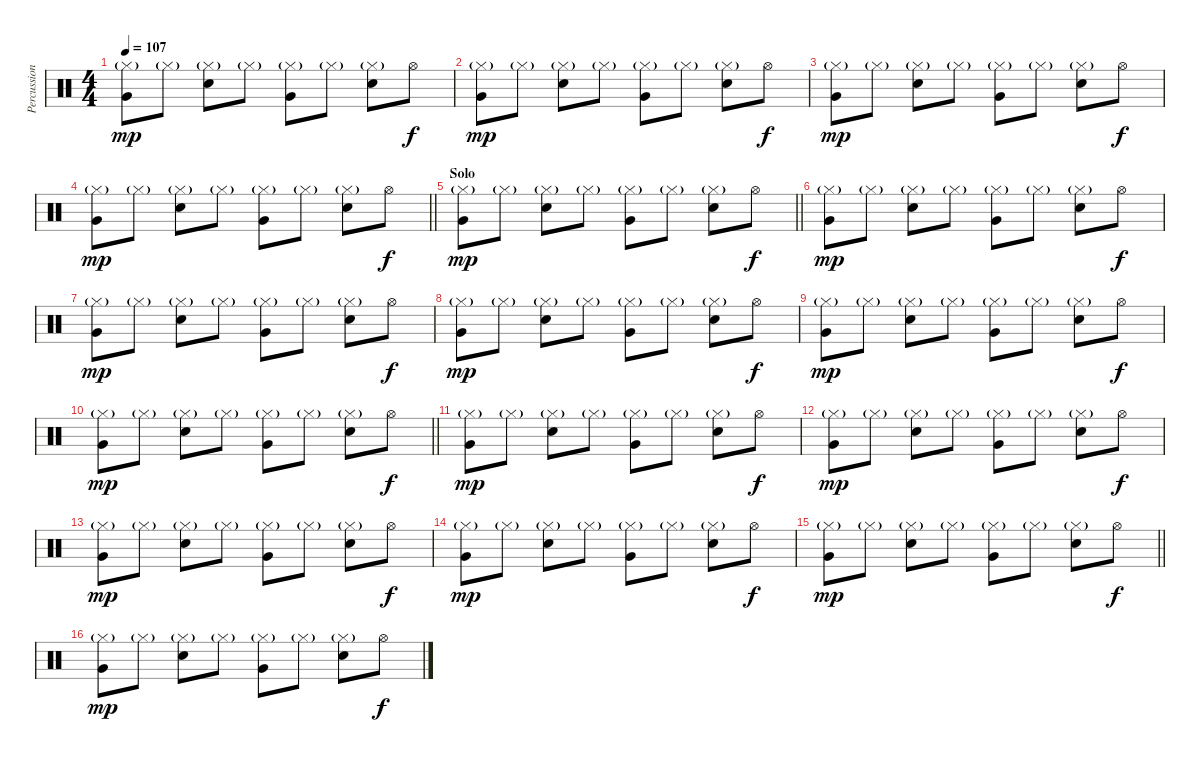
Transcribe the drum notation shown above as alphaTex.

\track ("Percussion" "Percussion") {instrument percussion}
\staff {score}
\articulation defaults
\ts (4 4)
\tempo 107
\clef neutral
\ks c
("Hi-Hat (closed)"{g} "Very Low Tom (hit)").8{dy mp} "Hi-Hat (closed)"{g}.8 ("Hi-Hat (closed)"{g} "Electric Snare (hit)").8 "Hi-Hat (closed)"{g}.8 ("Hi-Hat (closed)"{g} "Very Low Tom (hit)").8 "Hi-Hat (closed)"{g}.8 ("Hi-Hat (closed)"{g} "Electric Snare (hit)").8 "Hi-Hat (open)".8{dy f} |
("Hi-Hat (closed)"{g} "Very Low Tom (hit)").8{dy mp} "Hi-Hat (closed)"{g}.8 ("Hi-Hat (closed)"{g} "Electric Snare (hit)").8 "Hi-Hat (closed)"{g}.8 ("Hi-Hat (closed)"{g} "Very Low Tom (hit)").8 "Hi-Hat (closed)"{g}.8 ("Hi-Hat (closed)"{g} "Electric Snare (hit)").8 "Hi-Hat (open)".8{dy f} |
("Hi-Hat (closed)"{g} "Very Low Tom (hit)").8{dy mp} "Hi-Hat (closed)"{g}.8 ("Hi-Hat (closed)"{g} "Electric Snare (hit)").8 "Hi-Hat (closed)"{g}.8 ("Hi-Hat (closed)"{g} "Very Low Tom (hit)").8 "Hi-Hat (closed)"{g}.8 ("Hi-Hat (closed)"{g} "Electric Snare (hit)").8 "Hi-Hat (open)".8{dy f} |
\barLineRight lightlight
("Hi-Hat (closed)"{g} "Very Low Tom (hit)").8{dy mp} "Hi-Hat (closed)"{g}.8 ("Hi-Hat (closed)"{g} "Electric Snare (hit)").8 "Hi-Hat (closed)"{g}.8 ("Hi-Hat (closed)"{g} "Very Low Tom (hit)").8 "Hi-Hat (closed)"{g}.8 ("Hi-Hat (closed)"{g} "Electric Snare (hit)").8 "Hi-Hat (open)".8{dy f} |
\section ("" "Solo")
\barLineRight lightlight
("Hi-Hat (closed)"{g} "Very Low Tom (hit)").8{dy mp} "Hi-Hat (closed)"{g}.8 ("Hi-Hat (closed)"{g} "Electric Snare (hit)").8 "Hi-Hat (closed)"{g}.8 ("Hi-Hat (closed)"{g} "Very Low Tom (hit)").8 "Hi-Hat (closed)"{g}.8 ("Hi-Hat (closed)"{g} "Electric Snare (hit)").8 "Hi-Hat (open)".8{dy f} |
("Hi-Hat (closed)"{g} "Very Low Tom (hit)").8{dy mp} "Hi-Hat (closed)"{g}.8 ("Hi-Hat (closed)"{g} "Electric Snare (hit)").8 "Hi-Hat (closed)"{g}.8 ("Hi-Hat (closed)"{g} "Very Low Tom (hit)").8 "Hi-Hat (closed)"{g}.8 ("Hi-Hat (closed)"{g} "Electric Snare (hit)").8 "Hi-Hat (open)".8{dy f} |
("Hi-Hat (closed)"{g} "Very Low Tom (hit)").8{dy mp} "Hi-Hat (closed)"{g}.8 ("Hi-Hat (closed)"{g} "Electric Snare (hit)").8 "Hi-Hat (closed)"{g}.8 ("Hi-Hat (closed)"{g} "Very Low Tom (hit)").8 "Hi-Hat (closed)"{g}.8 ("Hi-Hat (closed)"{g} "Electric Snare (hit)").8 "Hi-Hat (open)".8{dy f} |
("Hi-Hat (closed)"{g} "Very Low Tom (hit)").8{dy mp} "Hi-Hat (closed)"{g}.8 ("Hi-Hat (closed)"{g} "Electric Snare (hit)").8 "Hi-Hat (closed)"{g}.8 ("Hi-Hat (closed)"{g} "Very Low Tom (hit)").8 "Hi-Hat (closed)"{g}.8 ("Hi-Hat (closed)"{g} "Electric Snare (hit)").8 "Hi-Hat (open)".8{dy f} |
("Hi-Hat (closed)"{g} "Very Low Tom (hit)").8{dy mp} "Hi-Hat (closed)"{g}.8 ("Hi-Hat (closed)"{g} "Electric Snare (hit)").8 "Hi-Hat (closed)"{g}.8 ("Hi-Hat (closed)"{g} "Very Low Tom (hit)").8 "Hi-Hat (closed)"{g}.8 ("Hi-Hat (closed)"{g} "Electric Snare (hit)").8 "Hi-Hat (open)".8{dy f} |
\barLineRight lightlight
("Hi-Hat (closed)"{g} "Very Low Tom (hit)").8{dy mp} "Hi-Hat (closed)"{g}.8 ("Hi-Hat (closed)"{g} "Electric Snare (hit)").8 "Hi-Hat (closed)"{g}.8 ("Hi-Hat (closed)"{g} "Very Low Tom (hit)").8 "Hi-Hat (closed)"{g}.8 ("Hi-Hat (closed)"{g} "Electric Snare (hit)").8 "Hi-Hat (open)".8{dy f} |
("Hi-Hat (closed)"{g} "Very Low Tom (hit)").8{dy mp} "Hi-Hat (closed)"{g}.8 ("Hi-Hat (closed)"{g} "Electric Snare (hit)").8 "Hi-Hat (closed)"{g}.8 ("Hi-Hat (closed)"{g} "Very Low Tom (hit)").8 "Hi-Hat (closed)"{g}.8 ("Hi-Hat (closed)"{g} "Electric Snare (hit)").8 "Hi-Hat (open)".8{dy f} |
("Hi-Hat (closed)"{g} "Very Low Tom (hit)").8{dy mp} "Hi-Hat (closed)"{g}.8 ("Hi-Hat (closed)"{g} "Electric Snare (hit)").8 "Hi-Hat (closed)"{g}.8 ("Hi-Hat (closed)"{g} "Very Low Tom (hit)").8 "Hi-Hat (closed)"{g}.8 ("Hi-Hat (closed)"{g} "Electric Snare (hit)").8 "Hi-Hat (open)".8{dy f} |
("Hi-Hat (closed)"{g} "Very Low Tom (hit)").8{dy mp} "Hi-Hat (closed)"{g}.8 ("Hi-Hat (closed)"{g} "Electric Snare (hit)").8 "Hi-Hat (closed)"{g}.8 ("Hi-Hat (closed)"{g} "Very Low Tom (hit)").8 "Hi-Hat (closed)"{g}.8 ("Hi-Hat (closed)"{g} "Electric Snare (hit)").8 "Hi-Hat (open)".8{dy f} |
("Hi-Hat (closed)"{g} "Very Low Tom (hit)").8{dy mp} "Hi-Hat (closed)"{g}.8 ("Hi-Hat (closed)"{g} "Electric Snare (hit)").8 "Hi-Hat (closed)"{g}.8 ("Hi-Hat (closed)"{g} "Very Low Tom (hit)").8 "Hi-Hat (closed)"{g}.8 ("Hi-Hat (closed)"{g} "Electric Snare (hit)").8 "Hi-Hat (open)".8{dy f} |
\barLineRight lightlight
("Hi-Hat (closed)"{g} "Very Low Tom (hit)").8{dy mp} "Hi-Hat (closed)"{g}.8 ("Hi-Hat (closed)"{g} "Electric Snare (hit)").8 "Hi-Hat (closed)"{g}.8 ("Hi-Hat (closed)"{g} "Very Low Tom (hit)").8 "Hi-Hat (closed)"{g}.8 ("Hi-Hat (closed)"{g} "Electric Snare (hit)").8 "Hi-Hat (open)".8{dy f} |
("Hi-Hat (closed)"{g} "Very Low Tom (hit)").8{dy mp} "Hi-Hat (closed)"{g}.8 ("Hi-Hat (closed)"{g} "Electric Snare (hit)").8 "Hi-Hat (closed)"{g}.8 ("Hi-Hat (closed)"{g} "Very Low Tom (hit)").8 "Hi-Hat (closed)"{g}.8 ("Hi-Hat (closed)"{g} "Electric Snare (hit)").8 "Hi-Hat (open)".8{dy f}
